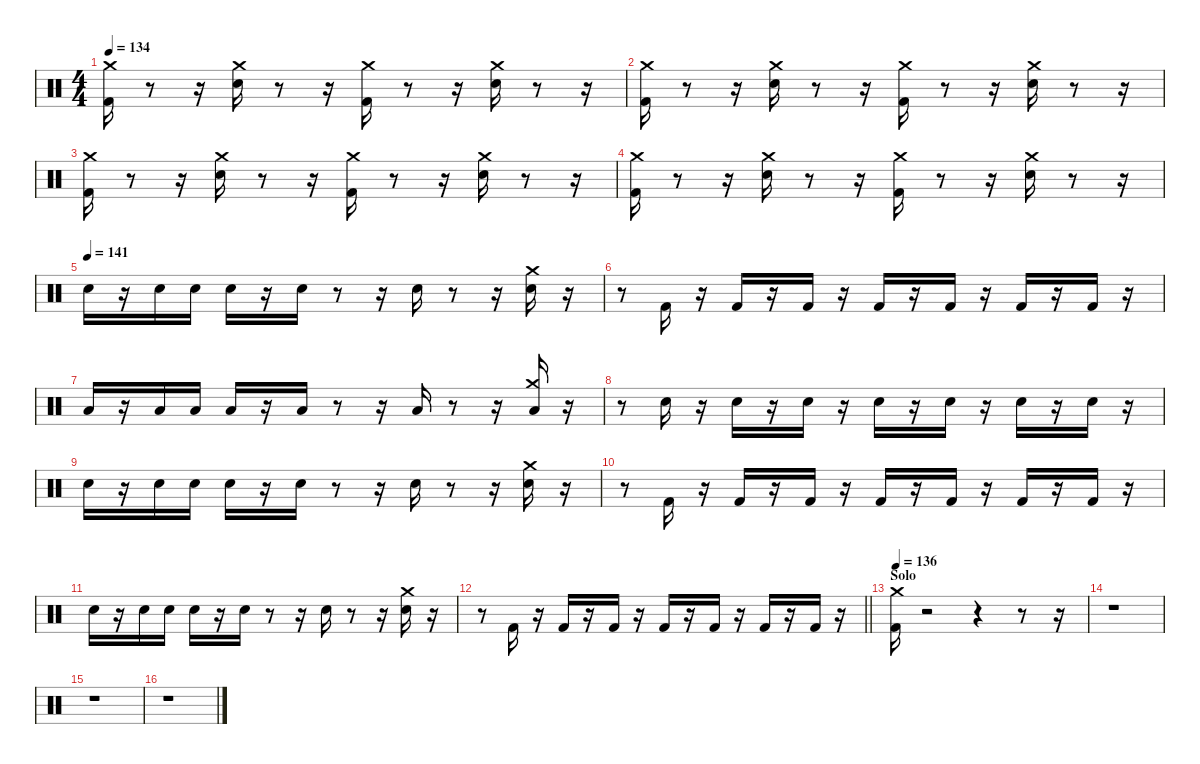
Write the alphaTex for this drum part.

\defaultSystemsLayout 4
\hideDynamics
\bracketExtendMode nobrackets
\singleTrackTrackNamePolicy hidden
\multiTrackTrackNamePolicy hidden
\firstSystemTrackNameMode fullname
\firstSystemTrackNameOrientation horizontal
\otherSystemsTrackNameOrientation horizontal
\track ("John Bonham" "drm.") {instrument percussion}
\staff {score}
\articulation defaults
\ts (4 4)
\tempo 134
\clef neutral
\ks aminor
("Kick (hit) 2" "Crash medium (hit)").16{dy f beam Down} r.8{beam Down} r.16{beam Down} ("Snare (hit) 2" "Crash medium (hit)").16{beam Down} r.8{beam Down} r.16{beam Down} ("Kick (hit) 2" "Crash medium (hit)").16{beam Down} r.8{beam Down} r.16{beam Down} ("Snare (hit) 2" "Crash medium (hit)").16{beam Down} r.8{beam Down} r.16{beam Down} |
("Kick (hit) 2" "Crash medium (hit)").16{beam Down} r.8{beam Down} r.16{beam Down} ("Snare (hit) 2" "Crash medium (hit)").16{beam Down} r.8{beam Down} r.16{beam Down} ("Kick (hit) 2" "Crash medium (hit)").16{beam Down} r.8{beam Down} r.16{beam Down} ("Snare (hit) 2" "Crash medium (hit)").16{beam Down} r.8{beam Down} r.16{beam Down} |
("Kick (hit) 2" "Crash medium (hit)").16{beam Down} r.8{beam Down} r.16{beam Down} ("Snare (hit) 2" "Crash medium (hit)").16{beam Down} r.8{beam Down} r.16{beam Down} ("Kick (hit) 2" "Crash medium (hit)").16{beam Down} r.8{beam Down} r.16{beam Down} ("Snare (hit) 2" "Crash medium (hit)").16{beam Down} r.8{beam Down} r.16{beam Down} |
("Kick (hit) 2" "Crash medium (hit)").16{beam Down} r.8{beam Down} r.16{beam Down} ("Snare (hit) 2" "Crash medium (hit)").16{beam Down} r.8{beam Down} r.16{beam Down} ("Kick (hit) 2" "Crash medium (hit)").16{beam Down} r.8{beam Down} r.16{beam Down} ("Snare (hit) 2" "Crash medium (hit)").16{beam Down} r.8{beam Down} r.16{beam Down} |
\tempo (141)
"Snare (hit) 2".16{beam Down} r.16{beam Down} "Snare (hit) 2".16{beam Down} "Snare (hit) 2".16{beam Down} "Snare (hit) 2".16{beam Down} r.16{beam Down} "Snare (hit) 2".16{beam Down} r.8{beam Down} r.16{beam Down} "Snare (hit) 2".16{beam Down} r.8{beam Down} r.16{beam Down} ("Snare (hit) 2" "Crash medium (hit)").16{beam Down} r.16{beam Down} |
r.8{beam Down} "Kick (hit) 2".16{beam Up} r.16{beam Up} "Kick (hit) 2".16{beam Up} r.16{beam Up} "Kick (hit) 2".16{beam Up} r.16{beam Up} "Kick (hit) 2".16{beam Up} r.16{beam Up} "Kick (hit) 2".16{beam Up} r.16{beam Up} "Kick (hit) 2".16{beam Up} r.16{beam Up} "Kick (hit) 2".16{beam Up} r.16{beam Up} |
"Low Floor Tom (hit)".16{beam Up} r.16{beam Up} "Low Floor Tom (hit)".16{beam Up} "Low Floor Tom (hit)".16{beam Up} "Low Floor Tom (hit)".16{beam Up} r.16{beam Up} "Low Floor Tom (hit)".16{beam Up} r.8{beam Up} r.16{beam Up} "Low Floor Tom (hit)".16{beam Up} r.8{beam Up} r.16{beam Up} ("Low Floor Tom (hit)" "Crash medium (hit)").16{beam Down} r.16{beam Down} |
r.8{beam Down} "Snare (hit) 2".16{beam Down} r.16{beam Down} "Snare (hit) 2".16{beam Down} r.16{beam Down} "Snare (hit) 2".16{beam Down} r.16{beam Down} "Snare (hit) 2".16{beam Down} r.16{beam Down} "Snare (hit) 2".16{beam Down} r.16{beam Down} "Snare (hit) 2".16{beam Down} r.16{beam Down} "Snare (hit) 2".16{beam Down} r.16{beam Down} |
"Snare (hit) 2".16{beam Down} r.16{beam Down} "Snare (hit) 2".16{beam Down} "Snare (hit) 2".16{beam Down} "Snare (hit) 2".16{beam Down} r.16{beam Down} "Snare (hit) 2".16{beam Down} r.8{beam Down} r.16{beam Down} "Snare (hit) 2".16{beam Down} r.8{beam Down} r.16{beam Down} ("Snare (hit) 2" "Crash medium (hit)").16{beam Down} r.16{beam Down} |
r.8{beam Down} "Kick (hit) 2".16{beam Up} r.16{beam Up} "Kick (hit) 2".16{beam Up} r.16{beam Up} "Kick (hit) 2".16{beam Up} r.16{beam Up} "Kick (hit) 2".16{beam Up} r.16{beam Up} "Kick (hit) 2".16{beam Up} r.16{beam Up} "Kick (hit) 2".16{beam Up} r.16{beam Up} "Kick (hit) 2".16{beam Up} r.16{beam Up} |
"Snare (hit) 2".16{beam Down} r.16{beam Down} "Snare (hit) 2".16{beam Down} "Snare (hit) 2".16{beam Down} "Snare (hit) 2".16{beam Down} r.16{beam Down} "Snare (hit) 2".16{beam Down} r.8{beam Down} r.16{beam Down} "Snare (hit) 2".16{beam Down} r.8{beam Down} r.16{beam Down} ("Snare (hit) 2" "Crash medium (hit)").16{beam Down} r.16{beam Down} |
\barLineRight lightlight
r.8{beam Down} "Kick (hit) 2".16{beam Up} r.16{beam Up} "Kick (hit) 2".16{beam Up} r.16{beam Up} "Kick (hit) 2".16{beam Up} r.16{beam Up} "Kick (hit) 2".16{beam Up} r.16{beam Up} "Kick (hit) 2".16{beam Up} r.16{beam Up} "Kick (hit) 2".16{beam Up} r.16{beam Up} "Kick (hit) 2".16{beam Up} r.16{beam Up} |
\section ("" "Solo")
\tempo 136
("Kick (hit) 2" "Crash medium (hit)").16{beam Down} r.2{beam Down} r.4{beam Down} r.8{beam Down} r.16{beam Down} |
r.1{beam Down} |
r.1{beam Down} |
r.1{beam Down}
